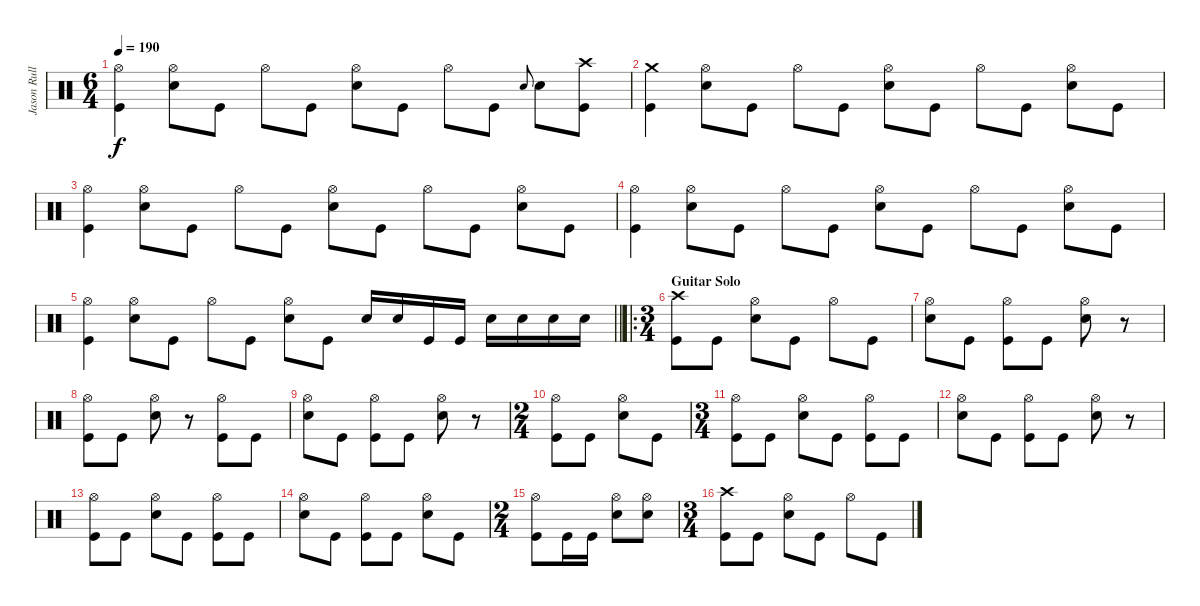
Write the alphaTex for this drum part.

\track ("Jason Rullo - Drums and Percussion" "Jason Rull") {instrument percussion}
\staff {score}
\articulation defaults
\ts (6 4)
\tempo 190
\clef neutral
\ks c
("Kick (hit)" "Hi-Hat (open)").4{dy f} ("Snare (hit) 2" "Hi-Hat (open)").8 "Kick (hit)".8 "Hi-Hat (open)".8 "Kick (hit)".8 ("Snare (hit) 2" "Hi-Hat (open)").8 "Kick (hit)".8 "Hi-Hat (open)".8 "Kick (hit)".8 "Snare (hit) 2".8{gr onbeat} "Snare (hit) 2".8 ("Kick (hit)" "Crash high (hit)").8 |
("Kick (hit)" "Crash medium (hit)").4 ("Snare (hit) 2" "Hi-Hat (open)").8 "Kick (hit)".8 "Hi-Hat (open)".8 "Kick (hit)".8 ("Snare (hit) 2" "Hi-Hat (open)").8 "Kick (hit)".8 "Hi-Hat (open)".8 "Kick (hit)".8 ("Snare (hit) 2" "Hi-Hat (open)").8 "Kick (hit)".8 |
("Kick (hit)" "Hi-Hat (open)").4 ("Snare (hit) 2" "Hi-Hat (open)").8 "Kick (hit)".8 "Hi-Hat (open)".8 "Kick (hit)".8 ("Snare (hit) 2" "Hi-Hat (open)").8 "Kick (hit)".8 "Hi-Hat (open)".8 "Kick (hit)".8 ("Snare (hit) 2" "Hi-Hat (open)").8 "Kick (hit)".8 |
("Kick (hit)" "Hi-Hat (open)").4 ("Snare (hit) 2" "Hi-Hat (open)").8 "Kick (hit)".8 "Hi-Hat (open)".8 "Kick (hit)".8 ("Snare (hit) 2" "Hi-Hat (open)").8 "Kick (hit)".8 "Hi-Hat (open)".8 "Kick (hit)".8 ("Snare (hit) 2" "Hi-Hat (open)").8 "Kick (hit)".8 |
\barLineRight lightlight
("Kick (hit)" "Hi-Hat (open)").4 ("Snare (hit) 2" "Hi-Hat (open)").8 "Kick (hit)".8 "Hi-Hat (open)".8 "Kick (hit)".8 ("Snare (hit) 2" "Hi-Hat (open)").8 "Kick (hit)".8 "Snare (hit) 2".16 "Snare (hit) 2".16 "Kick (hit)".16 "Kick (hit)".16 "Snare (hit) 2".16 "Snare (hit) 2".16 "Snare (hit) 2".16 "Snare (hit) 2".16 |
\ro
\ts (3 4)
\section ("" "Guitar Solo")
("Kick (hit)" "Crash high (hit)").8 "Kick (hit)".8 ("Snare (hit) 2" "Hi-Hat (open)").8 "Kick (hit)".8 "Hi-Hat (open)".8 "Kick (hit)".8 |
("Snare (hit) 2" "Hi-Hat (open)").8 "Kick (hit)".8 ("Kick (hit)" "Hi-Hat (open)").8 "Kick (hit)".8 ("Snare (hit) 2" "Hi-Hat (open)").8 r.8 |
("Kick (hit)" "Hi-Hat (open)").8 "Kick (hit)".8 ("Snare (hit) 2" "Hi-Hat (open)").8 r.8 ("Kick (hit)" "Hi-Hat (open)").8 "Kick (hit)".8 |
("Snare (hit) 2" "Hi-Hat (open)").8 "Kick (hit)".8 ("Kick (hit)" "Hi-Hat (open)").8 "Kick (hit)".8 ("Snare (hit) 2" "Hi-Hat (open)").8 r.8 |
\ts (2 4)
("Kick (hit)" "Hi-Hat (open)").8 "Kick (hit)".8 ("Snare (hit) 2" "Hi-Hat (open)").8 "Kick (hit)".8 |
\ts (3 4)
("Kick (hit)" "Hi-Hat (open)").8 "Kick (hit)".8 ("Snare (hit) 2" "Hi-Hat (open)").8 "Kick (hit)".8 ("Kick (hit)" "Hi-Hat (open)").8 "Kick (hit)".8 |
("Snare (hit) 2" "Hi-Hat (open)").8 "Kick (hit)".8 ("Kick (hit)" "Hi-Hat (open)").8 "Kick (hit)".8 ("Snare (hit) 2" "Hi-Hat (open)").8 r.8 |
("Kick (hit)" "Hi-Hat (open)").8 "Kick (hit)".8 ("Hi-Hat (open)" "Snare (hit) 2").8 "Kick (hit)".8 ("Kick (hit)" "Hi-Hat (open)").8 "Kick (hit)".8 |
("Snare (hit) 2" "Hi-Hat (open)").8 "Kick (hit)".8 ("Kick (hit)" "Hi-Hat (open)").8 "Kick (hit)".8 ("Snare (hit) 2" "Hi-Hat (open)").8 "Kick (hit)".8 |
\ts (2 4)
("Hi-Hat (open)" "Kick (hit)").8 "Kick (hit)".16 "Kick (hit)".16 ("Hi-Hat (open)" "Snare (hit) 2").8 ("Hi-Hat (open)" "Snare (hit) 2").8 |
\ts (3 4)
("Kick (hit)" "Crash high (hit)").8 "Kick (hit)".8 ("Snare (hit) 2" "Hi-Hat (open)").8 "Kick (hit)".8 "Hi-Hat (open)".8 "Kick (hit)".8
